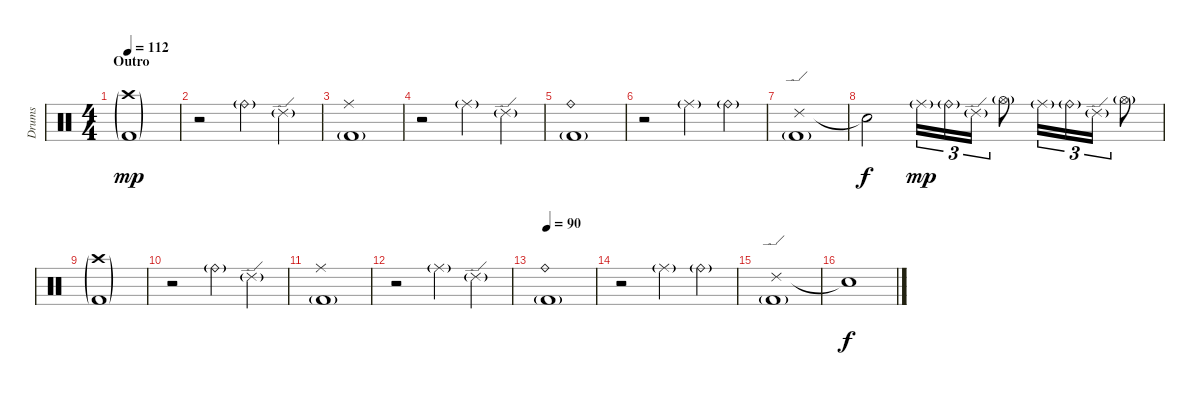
\track ("Drums" "Drums") {instrument percussion}
\staff {score}
\articulation defaults
\ts (4 4)
\section ("" "Outro")
\tempo 112
\clef neutral
\ks c
("Crash high (hit)"{g} "Kick (hit) 2"{g}).1{dy mp} |
r.2 "Ride (bell)"{g}.4 "Ride (edge) 2"{g}.4 |
("Ride (middle)" "Kick (hit) 2"{g}).1 |
r.2 "Ride (middle)"{g}.4 "Ride (edge) 2"{g}.4 |
("Ride (bell)" "Kick (hit) 2"{g}).1 |
r.2 "Ride (middle)"{g}.4 "Ride (bell)"{g}.4 |
("Ride (edge) 2" "Kick (hit) 2"{g}).1 |
"Snare (hit)"{t}.2{dy f} "Ride (middle)"{g}.16{tu (3 2) dy mp} "Ride (bell)"{g}.16{tu (3 2)} "Ride (edge) 2"{g}.16{tu (3 2)} "Hi-Hat (open)"{g}.8 "Ride (middle)"{g}.16{tu (3 2)} "Ride (bell)"{g}.16{tu (3 2)} "Ride (edge) 2"{g}.16{tu (3 2)} "Hi-Hat (open)"{g}.8 |
("Crash high (hit)"{g} "Kick (hit) 2"{g}).1 |
r.2 "Ride (bell)"{g}.4 "Ride (edge) 2"{g}.4 |
("Ride (middle)" "Kick (hit) 2"{g}).1 |
r.2 "Ride (middle)"{g}.4 "Ride (edge) 2"{g}.4 |
\tempo 90
("Ride (bell)" "Kick (hit) 2"{g}).1 |
r.2 "Ride (middle)"{g}.4 "Ride (bell)"{g}.4 |
("Ride (edge) 2" "Kick (hit) 2"{g}).1 |
"Snare (hit)"{t}.1{dy f}
